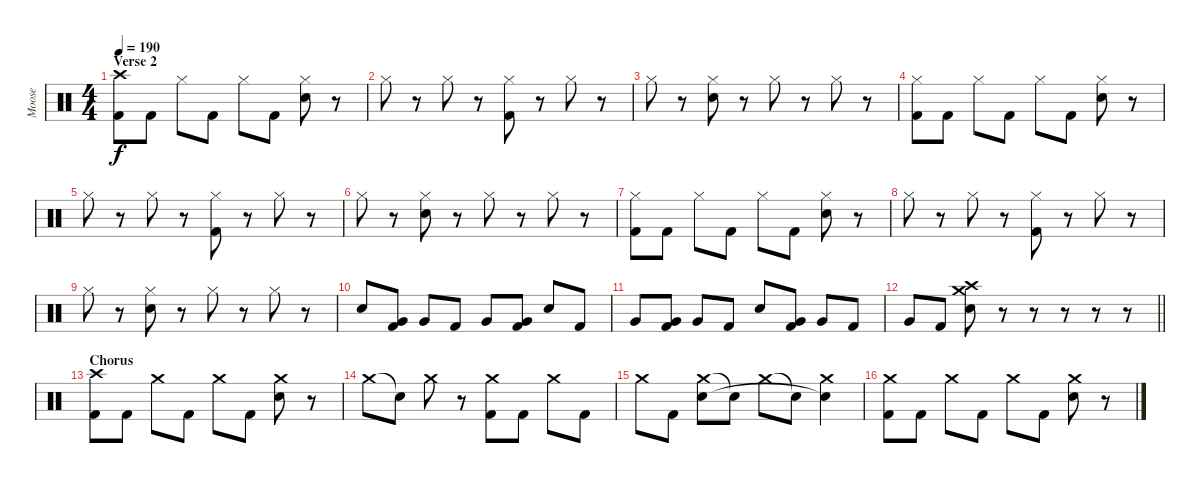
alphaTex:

\track ("Moose" "Moose") {instrument percussion}
\staff {score}
\articulation defaults
\ts (4 4)
\section ("" "Verse 2")
\tempo 190
\clef neutral
\ks c
("Crash high (hit)" "Kick (hit) 2").8{dy f} "Kick (hit) 2".8 "Hi-Hat (closed)".8 "Kick (hit) 2".8 "Hi-Hat (closed)".8 "Kick (hit) 2".8 ("Hi-Hat (closed)" "Snare (hit) 2").8 r.8 |
"Hi-Hat (closed)".8 r.8 "Hi-Hat (closed)".8 r.8 ("Hi-Hat (closed)" "Kick (hit) 2").8 r.8 "Hi-Hat (closed)".8 r.8 |
"Hi-Hat (closed)".8 r.8 ("Hi-Hat (closed)" "Snare (hit) 2").8 r.8 "Hi-Hat (closed)".8 r.8 "Hi-Hat (closed)".8 r.8 |
("Hi-Hat (closed)" "Kick (hit) 2").8 "Kick (hit) 2".8 "Hi-Hat (closed)".8 "Kick (hit) 2".8 "Hi-Hat (closed)".8 "Kick (hit) 2".8 ("Hi-Hat (closed)" "Snare (hit) 2").8 r.8 |
"Hi-Hat (closed)".8 r.8 "Hi-Hat (closed)".8 r.8 ("Hi-Hat (closed)" "Kick (hit) 2").8 r.8 "Hi-Hat (closed)".8 r.8 |
"Hi-Hat (closed)".8 r.8 ("Hi-Hat (closed)" "Snare (hit) 2").8 r.8 "Hi-Hat (closed)".8 r.8 "Hi-Hat (closed)".8 r.8 |
("Hi-Hat (closed)" "Kick (hit) 2").8 "Kick (hit) 2".8 "Hi-Hat (closed)".8 "Kick (hit) 2".8 "Hi-Hat (closed)".8 "Kick (hit) 2".8 ("Hi-Hat (closed)" "Snare (hit) 2").8 r.8 |
"Hi-Hat (closed)".8 r.8 "Hi-Hat (closed)".8 r.8 ("Hi-Hat (closed)" "Kick (hit) 2").8 r.8 "Hi-Hat (closed)".8 r.8 |
"Hi-Hat (closed)".8 r.8 ("Hi-Hat (closed)" "Snare (hit) 2").8 r.8 "Hi-Hat (closed)".8 r.8 "Hi-Hat (closed)".8 r.8 |
"Snare (hit) 2".8 ("Very Low Tom (hit)" "Kick (hit) 2").8 "Very Low Tom (hit)".8 "Kick (hit) 2".8 "Very Low Tom (hit)".8 ("Very Low Tom (hit)" "Kick (hit) 2").8 "Snare (hit) 2".8 "Kick (hit) 2".8 |
"Very Low Tom (hit)".8 ("Very Low Tom (hit)" "Kick (hit) 2").8 "Very Low Tom (hit)".8 "Kick (hit) 2".8 "Snare (hit) 2".8 ("Very Low Tom (hit)" "Kick (hit) 2").8 "Very Low Tom (hit)".8 "Kick (hit) 2".8 |
\barLineRight lightlight "Very Low Tom (hit)".8 "Kick (hit) 2".8
("Crash high (hit)" "Crash medium (hit)" "Snare (hit) 2").8 r.8 r.8 r.8 r.8 r.8 |
\section ("" "Chorus")
("Crash high (hit)" "Kick (hit) 2").8 "Kick (hit) 2".8 "Crash medium (hit)".8 "Kick (hit) 2".8 "Crash medium (hit)".8 "Kick (hit) 2".8 ("Crash medium (hit)" "Snare (hit) 2").8 r.8 |
"Crash medium (hit)".8 "Snare (hit)"{t}.8 "Crash medium (hit)".8 r.8 ("Crash medium (hit)" "Kick (hit) 2").8 "Kick (hit) 2".8 "Crash medium (hit)".8 "Kick (hit) 2".8 |
"Crash medium (hit)".8 "Kick (hit) 2".8 ("Crash medium (hit)" "Snare (hit) 2").8 "Snare (hit)"{t}.8 "Crash medium (hit)".8 "Snare (hit)"{t}.8 ("Crash medium (hit)" "Snare (hit)"{t}).4 |
("Crash medium (hit)" "Kick (hit) 2").8 "Kick (hit) 2".8 "Crash medium (hit)".8 "Kick (hit) 2".8 "Crash medium (hit)".8 "Kick (hit) 2".8 ("Crash medium (hit)" "Snare (hit) 2").8 r.8
